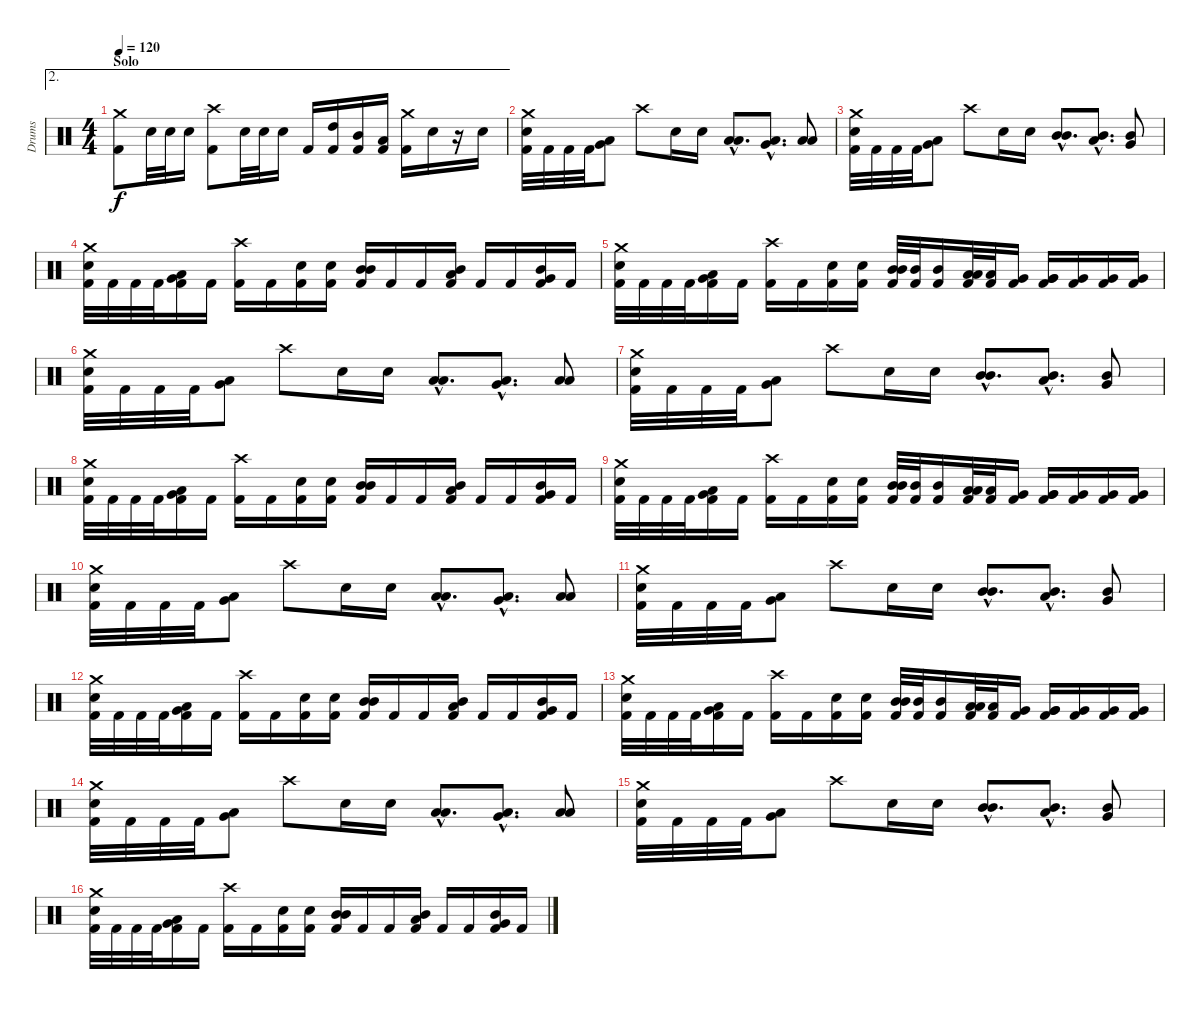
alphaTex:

\track ("Drums" "Drums") {instrument percussion}
\staff {score}
\articulation defaults
\ae 2
\ts (4 4)
\section ("" "Solo")
\tempo 120
\clef neutral
\ks c
("Crash medium (hit)" "Kick (hit) 2").8{dy f} "Snare (hit) 2".32 "Snare (hit) 2".32 "Snare (hit) 2".16 ("Crash high (hit)" "Kick (hit) 2").8 "Snare (hit) 2".32 "Snare (hit) 2".32 "Snare (hit) 2".16 "Kick (hit) 2".16 ("High Tom (hit)" "Kick (hit) 2").16 ("Mid Tom (hit)" "Kick (hit) 2").16 ("Low Tom (hit)" "Kick (hit) 2").16 ("Crash medium (hit)" "Kick (hit) 2").16 "Snare (hit) 2".16 r.16 "Snare (hit) 2".16 |
("Crash medium (hit)" "Snare (hit) 2" "Kick (hit) 2").32 "Kick (hit) 2".32 "Kick (hit) 2".32 "Kick (hit) 2".32 ("Low Tom (hit)" "Very Low Tom (hit)").8 "Crash high (hit)".8 "Snare (hit) 2".16 "Snare (hit) 2".16 ("Low Tom (hit)"{hac} "Low Tom (hit)"{hac}).8{d} ("Low Tom (hit)"{hac} "Very Low Tom (hit)"{hac}).8{d} ("Low Tom (hit)" "Low Floor Tom (hit)").8 |
("Crash medium (hit)" "Snare (hit) 2" "Kick (hit) 2").32 "Kick (hit) 2".32 "Kick (hit) 2".32 "Kick (hit) 2".32 ("Low Tom (hit)" "Very Low Tom (hit)").8 "Crash high (hit)".8 "Snare (hit) 2".16 "Snare (hit) 2".16 ("Mid Tom (hit)"{hac} "Mid Tom (hit)"{hac}).8{d} ("Mid Tom (hit)"{hac} "Low Tom (hit)"{hac}).8{d} ("Mid Tom (hit)" "Very Low Tom (hit)").8 |
("Crash medium (hit)" "Snare (hit) 2" "Kick (hit) 2").32 "Kick (hit) 2".32 "Kick (hit) 2".32 "Kick (hit) 2".32 ("Low Tom (hit)" "Very Low Tom (hit)" "Kick (hit) 2").16 "Kick (hit) 2".16 ("Crash high (hit)" "Kick (hit) 2").16 "Kick (hit) 2".16 ("Snare (hit) 2" "Kick (hit) 2").16 ("Snare (hit) 2" "Kick (hit) 2").16 ("Mid Tom (hit)" "Mid Tom (hit)" "Kick (hit) 2").16 "Kick (hit) 2".16 "Kick (hit) 2".16 ("Mid Tom (hit)" "Low Tom (hit)" "Kick (hit) 2").16 "Kick (hit) 2".16 "Kick (hit) 2".16 ("Mid Tom (hit)" "Very Low Tom (hit)" "Kick (hit) 2").16 "Kick (hit) 2".16 |
("Crash medium (hit)" "Snare (hit) 2" "Kick (hit) 2").32 "Kick (hit) 2".32 "Kick (hit) 2".32 "Kick (hit) 2".32 ("Low Tom (hit)" "Very Low Tom (hit)" "Kick (hit) 2").16 "Kick (hit) 2".16 ("Crash high (hit)" "Kick (hit) 2").16 "Kick (hit) 2".16 ("Snare (hit) 2" "Kick (hit) 2").16 ("Snare (hit) 2" "Kick (hit) 2").16 ("Mid Tom (hit)" "Mid Tom (hit)" "Kick (hit) 2").32 ("Mid Tom (hit)" "Kick (hit) 2").32 ("Mid Tom (hit)" "Kick (hit) 2").16 ("Low Tom (hit)" "Low Tom (hit)" "Kick (hit) 2").32 ("Low Tom (hit)" "Kick (hit) 2").32 ("Very Low Tom (hit)" "Kick (hit) 2").16 ("Very Low Tom (hit)" "Very Low Tom (hit)" "Kick (hit) 2").16 ("Very Low Tom (hit)" "Kick (hit) 2").16 ("Very Low Tom (hit)" "Kick (hit) 2").16 ("Very Low Tom (hit)" "Kick (hit) 2").16 |
("Crash medium (hit)" "Snare (hit) 2" "Kick (hit) 2").32 "Kick (hit) 2".32 "Kick (hit) 2".32 "Kick (hit) 2".32 ("Low Tom (hit)" "Very Low Tom (hit)").8 "Crash high (hit)".8 "Snare (hit) 2".16 "Snare (hit) 2".16 ("Low Tom (hit)"{hac} "Low Tom (hit)"{hac}).8{d} ("Low Tom (hit)"{hac} "Very Low Tom (hit)"{hac}).8{d} ("Low Tom (hit)" "Low Floor Tom (hit)").8 |
("Crash medium (hit)" "Snare (hit) 2" "Kick (hit) 2").32 "Kick (hit) 2".32 "Kick (hit) 2".32 "Kick (hit) 2".32 ("Low Tom (hit)" "Very Low Tom (hit)").8 "Crash high (hit)".8 "Snare (hit) 2".16 "Snare (hit) 2".16 ("Mid Tom (hit)"{hac} "Mid Tom (hit)"{hac}).8{d} ("Mid Tom (hit)"{hac} "Low Tom (hit)"{hac}).8{d} ("Mid Tom (hit)" "Very Low Tom (hit)").8 |
("Crash medium (hit)" "Snare (hit) 2" "Kick (hit) 2").32 "Kick (hit) 2".32 "Kick (hit) 2".32 "Kick (hit) 2".32 ("Low Tom (hit)" "Very Low Tom (hit)" "Kick (hit) 2").16 "Kick (hit) 2".16 ("Crash high (hit)" "Kick (hit) 2").16 "Kick (hit) 2".16 ("Snare (hit) 2" "Kick (hit) 2").16 ("Snare (hit) 2" "Kick (hit) 2").16 ("Mid Tom (hit)" "Mid Tom (hit)" "Kick (hit) 2").16 "Kick (hit) 2".16 "Kick (hit) 2".16 ("Mid Tom (hit)" "Low Tom (hit)" "Kick (hit) 2").16 "Kick (hit) 2".16 "Kick (hit) 2".16 ("Mid Tom (hit)" "Very Low Tom (hit)" "Kick (hit) 2").16 "Kick (hit) 2".16 |
("Crash medium (hit)" "Snare (hit) 2" "Kick (hit) 2").32 "Kick (hit) 2".32 "Kick (hit) 2".32 "Kick (hit) 2".32 ("Low Tom (hit)" "Very Low Tom (hit)" "Kick (hit) 2").16 "Kick (hit) 2".16 ("Crash high (hit)" "Kick (hit) 2").16 "Kick (hit) 2".16 ("Snare (hit) 2" "Kick (hit) 2").16 ("Snare (hit) 2" "Kick (hit) 2").16 ("Mid Tom (hit)" "Mid Tom (hit)" "Kick (hit) 2").32 ("Mid Tom (hit)" "Kick (hit) 2").32 ("Mid Tom (hit)" "Kick (hit) 2").16 ("Low Tom (hit)" "Low Tom (hit)" "Kick (hit) 2").32 ("Low Tom (hit)" "Kick (hit) 2").32 ("Very Low Tom (hit)" "Kick (hit) 2").16 ("Very Low Tom (hit)" "Very Low Tom (hit)" "Kick (hit) 2").16 ("Very Low Tom (hit)" "Kick (hit) 2").16 ("Very Low Tom (hit)" "Kick (hit) 2").16 ("Very Low Tom (hit)" "Kick (hit) 2").16 |
("Crash medium (hit)" "Snare (hit) 2" "Kick (hit) 2").32 "Kick (hit) 2".32 "Kick (hit) 2".32 "Kick (hit) 2".32 ("Low Tom (hit)" "Very Low Tom (hit)").8 "Crash high (hit)".8 "Snare (hit) 2".16 "Snare (hit) 2".16 ("Low Tom (hit)"{hac} "Low Tom (hit)"{hac}).8{d} ("Low Tom (hit)"{hac} "Very Low Tom (hit)"{hac}).8{d} ("Low Tom (hit)" "Low Floor Tom (hit)").8 |
("Crash medium (hit)" "Snare (hit) 2" "Kick (hit) 2").32 "Kick (hit) 2".32 "Kick (hit) 2".32 "Kick (hit) 2".32 ("Low Tom (hit)" "Very Low Tom (hit)").8 "Crash high (hit)".8 "Snare (hit) 2".16 "Snare (hit) 2".16 ("Mid Tom (hit)"{hac} "Mid Tom (hit)"{hac}).8{d} ("Mid Tom (hit)"{hac} "Low Tom (hit)"{hac}).8{d} ("Mid Tom (hit)" "Very Low Tom (hit)").8 |
("Crash medium (hit)" "Snare (hit) 2" "Kick (hit) 2").32 "Kick (hit) 2".32 "Kick (hit) 2".32 "Kick (hit) 2".32 ("Low Tom (hit)" "Very Low Tom (hit)" "Kick (hit) 2").16 "Kick (hit) 2".16 ("Crash high (hit)" "Kick (hit) 2").16 "Kick (hit) 2".16 ("Snare (hit) 2" "Kick (hit) 2").16 ("Snare (hit) 2" "Kick (hit) 2").16 ("Mid Tom (hit)" "Mid Tom (hit)" "Kick (hit) 2").16 "Kick (hit) 2".16 "Kick (hit) 2".16 ("Mid Tom (hit)" "Low Tom (hit)" "Kick (hit) 2").16 "Kick (hit) 2".16 "Kick (hit) 2".16 ("Mid Tom (hit)" "Very Low Tom (hit)" "Kick (hit) 2").16 "Kick (hit) 2".16 |
("Crash medium (hit)" "Snare (hit) 2" "Kick (hit) 2").32 "Kick (hit) 2".32 "Kick (hit) 2".32 "Kick (hit) 2".32 ("Low Tom (hit)" "Very Low Tom (hit)" "Kick (hit) 2").16 "Kick (hit) 2".16 ("Crash high (hit)" "Kick (hit) 2").16 "Kick (hit) 2".16 ("Snare (hit) 2" "Kick (hit) 2").16 ("Snare (hit) 2" "Kick (hit) 2").16 ("Mid Tom (hit)" "Mid Tom (hit)" "Kick (hit) 2").32 ("Mid Tom (hit)" "Kick (hit) 2").32 ("Mid Tom (hit)" "Kick (hit) 2").16 ("Low Tom (hit)" "Low Tom (hit)" "Kick (hit) 2").32 ("Low Tom (hit)" "Kick (hit) 2").32 ("Very Low Tom (hit)" "Kick (hit) 2").16 ("Very Low Tom (hit)" "Very Low Tom (hit)" "Kick (hit) 2").16 ("Very Low Tom (hit)" "Kick (hit) 2").16 ("Very Low Tom (hit)" "Kick (hit) 2").16 ("Very Low Tom (hit)" "Kick (hit) 2").16 |
("Crash medium (hit)" "Snare (hit) 2" "Kick (hit) 2").32 "Kick (hit) 2".32 "Kick (hit) 2".32 "Kick (hit) 2".32 ("Low Tom (hit)" "Very Low Tom (hit)").8 "Crash high (hit)".8 "Snare (hit) 2".16 "Snare (hit) 2".16 ("Low Tom (hit)"{hac} "Low Tom (hit)"{hac}).8{d} ("Low Tom (hit)"{hac} "Very Low Tom (hit)"{hac}).8{d} ("Low Tom (hit)" "Low Floor Tom (hit)").8 |
("Crash medium (hit)" "Snare (hit) 2" "Kick (hit) 2").32 "Kick (hit) 2".32 "Kick (hit) 2".32 "Kick (hit) 2".32 ("Low Tom (hit)" "Very Low Tom (hit)").8 "Crash high (hit)".8 "Snare (hit) 2".16 "Snare (hit) 2".16 ("Mid Tom (hit)"{hac} "Mid Tom (hit)"{hac}).8{d} ("Mid Tom (hit)"{hac} "Low Tom (hit)"{hac}).8{d} ("Mid Tom (hit)" "Very Low Tom (hit)").8 |
("Crash medium (hit)" "Snare (hit) 2" "Kick (hit) 2").32 "Kick (hit) 2".32 "Kick (hit) 2".32 "Kick (hit) 2".32 ("Low Tom (hit)" "Very Low Tom (hit)" "Kick (hit) 2").16 "Kick (hit) 2".16 ("Crash high (hit)" "Kick (hit) 2").16 "Kick (hit) 2".16 ("Snare (hit) 2" "Kick (hit) 2").16 ("Snare (hit) 2" "Kick (hit) 2").16 ("Mid Tom (hit)" "Mid Tom (hit)" "Kick (hit) 2").16 "Kick (hit) 2".16 "Kick (hit) 2".16 ("Mid Tom (hit)" "Low Tom (hit)" "Kick (hit) 2").16 "Kick (hit) 2".16 "Kick (hit) 2".16 ("Mid Tom (hit)" "Very Low Tom (hit)" "Kick (hit) 2").16 "Kick (hit) 2".16
